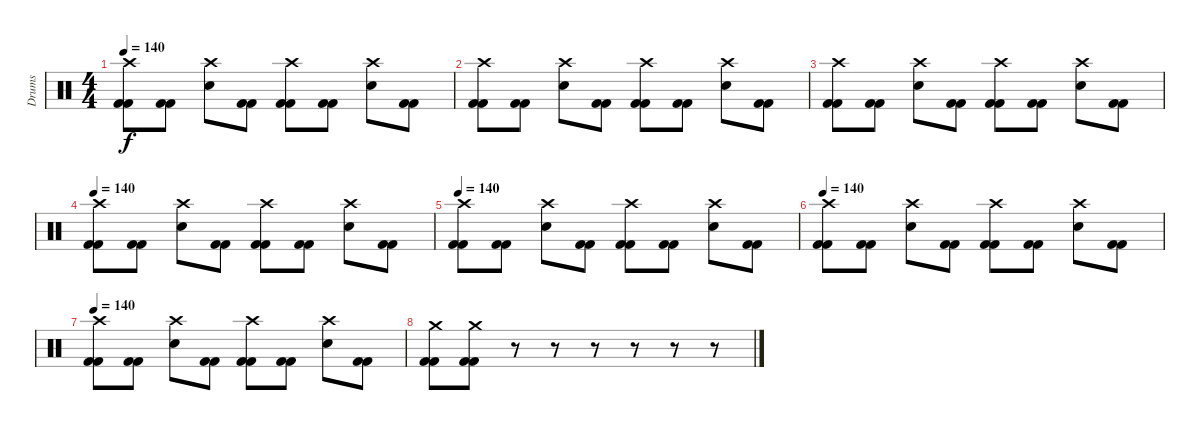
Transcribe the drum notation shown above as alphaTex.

\track ("Drums" "Drums") {instrument percussion}
\staff {score}
\articulation defaults
\ts (4 4)
\tempo 140
\clef neutral
\ks c
("Kick (hit) 2" "Kick (hit) 2" "Crash high (hit)").8{dy f} ("Kick (hit) 2" "Kick (hit) 2").8 ("Electric Snare (hit)" "Crash high (hit)").8 ("Kick (hit) 2" "Kick (hit) 2").8 ("Kick (hit) 2" "Kick (hit) 2" "Crash high (hit)").8 ("Kick (hit) 2" "Kick (hit) 2").8 ("Crash high (hit)" "Electric Snare (hit)").8 ("Kick (hit) 2" "Kick (hit) 2").8 |
("Kick (hit) 2" "Kick (hit) 2" "Crash high (hit)").8 ("Kick (hit) 2" "Kick (hit) 2").8 ("Electric Snare (hit)" "Crash high (hit)").8 ("Kick (hit) 2" "Kick (hit) 2").8 ("Kick (hit) 2" "Kick (hit) 2" "Crash high (hit)").8 ("Kick (hit) 2" "Kick (hit) 2").8 ("Crash high (hit)" "Electric Snare (hit)").8 ("Kick (hit) 2" "Kick (hit) 2").8 |
("Kick (hit) 2" "Kick (hit) 2" "Crash high (hit)").8 ("Kick (hit) 2" "Kick (hit) 2").8 ("Electric Snare (hit)" "Crash high (hit)").8 ("Kick (hit) 2" "Kick (hit) 2").8 ("Kick (hit) 2" "Kick (hit) 2" "Crash high (hit)").8 ("Kick (hit) 2" "Kick (hit) 2").8 ("Crash high (hit)" "Electric Snare (hit)").8 ("Kick (hit) 2" "Kick (hit) 2").8 |
\tempo 140
("Kick (hit) 2" "Kick (hit) 2" "Crash high (hit)").8 ("Kick (hit) 2" "Kick (hit) 2").8 ("Electric Snare (hit)" "Crash high (hit)").8 ("Kick (hit) 2" "Kick (hit) 2").8 ("Kick (hit) 2" "Kick (hit) 2" "Crash high (hit)").8 ("Kick (hit) 2" "Kick (hit) 2").8 ("Crash high (hit)" "Electric Snare (hit)").8 ("Kick (hit) 2" "Kick (hit) 2").8 |
\tempo 140
("Kick (hit) 2" "Kick (hit) 2" "Crash high (hit)").8 ("Kick (hit) 2" "Kick (hit) 2").8 ("Electric Snare (hit)" "Crash high (hit)").8 ("Kick (hit) 2" "Kick (hit) 2").8 ("Kick (hit) 2" "Kick (hit) 2" "Crash high (hit)").8 ("Kick (hit) 2" "Kick (hit) 2").8 ("Crash high (hit)" "Electric Snare (hit)").8 ("Kick (hit) 2" "Kick (hit) 2").8 |
\tempo 140
("Kick (hit) 2" "Kick (hit) 2" "Crash high (hit)").8 ("Kick (hit) 2" "Kick (hit) 2").8 ("Electric Snare (hit)" "Crash high (hit)").8 ("Kick (hit) 2" "Kick (hit) 2").8 ("Kick (hit) 2" "Kick (hit) 2" "Crash high (hit)").8 ("Kick (hit) 2" "Kick (hit) 2").8 ("Crash high (hit)" "Electric Snare (hit)").8 ("Kick (hit) 2" "Kick (hit) 2").8 |
\tempo 140
("Kick (hit) 2" "Kick (hit) 2" "Crash high (hit)").8 ("Kick (hit) 2" "Kick (hit) 2").8 ("Electric Snare (hit)" "Crash high (hit)").8 ("Kick (hit) 2" "Kick (hit) 2").8 ("Kick (hit) 2" "Kick (hit) 2" "Crash high (hit)").8 ("Kick (hit) 2" "Kick (hit) 2").8 ("Crash high (hit)" "Electric Snare (hit)").8 ("Kick (hit) 2" "Kick (hit) 2").8 |
("Crash medium (hit)" "Kick (hit) 2" "Kick (hit) 2").8 ("Kick (hit) 2" "Kick (hit) 2" "Crash medium (hit)").8 r.8 r.8 r.8 r.8 r.8 r.8
